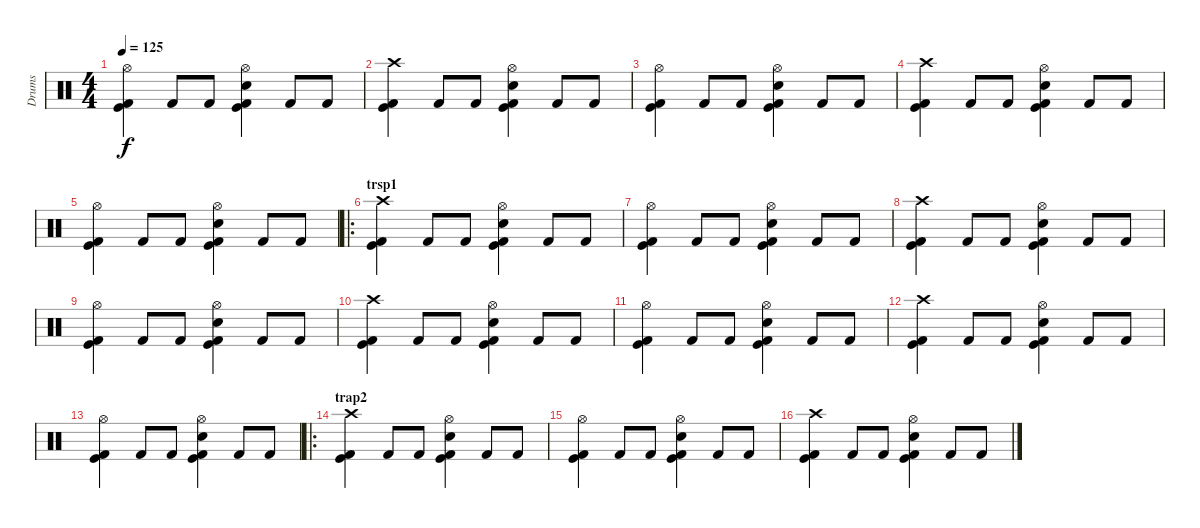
\track ("Drums" "Drums") {instrument percussion}
\staff {score}
\articulation defaults
\ts (4 4)
\tempo 125
\clef neutral
\ks c
("Hi-Hat (open)" "Kick (hit)" "Kick (hit) 2").4{dy f} "Kick (hit) 2".8 "Kick (hit) 2".8 ("Hi-Hat (open)" "Electric Snare (hit)" "Kick (hit)" "Kick (hit) 2").4 "Kick (hit) 2".8 "Kick (hit) 2".8 |
("Crash high (hit)" "Kick (hit)" "Kick (hit) 2").4 "Kick (hit) 2".8 "Kick (hit) 2".8 ("Hi-Hat (open)" "Electric Snare (hit)" "Kick (hit)" "Kick (hit) 2").4 "Kick (hit) 2".8 "Kick (hit) 2".8 |
("Hi-Hat (open)" "Kick (hit)" "Kick (hit) 2").4 "Kick (hit) 2".8 "Kick (hit) 2".8 ("Hi-Hat (open)" "Electric Snare (hit)" "Kick (hit)" "Kick (hit) 2").4 "Kick (hit) 2".8 "Kick (hit) 2".8 |
("Crash high (hit)" "Kick (hit)" "Kick (hit) 2").4 "Kick (hit) 2".8 "Kick (hit) 2".8 ("Hi-Hat (open)" "Electric Snare (hit)" "Kick (hit)" "Kick (hit) 2").4 "Kick (hit) 2".8 "Kick (hit) 2".8 |
("Hi-Hat (open)" "Kick (hit)" "Kick (hit) 2").4 "Kick (hit) 2".8 "Kick (hit) 2".8 ("Hi-Hat (open)" "Electric Snare (hit)" "Kick (hit)" "Kick (hit) 2").4 "Kick (hit) 2".8 "Kick (hit) 2".8 |
\ro
\section ("" "trsp1")
("Crash high (hit)" "Kick (hit)" "Kick (hit) 2").4 "Kick (hit) 2".8 "Kick (hit) 2".8 ("Hi-Hat (open)" "Electric Snare (hit)" "Kick (hit)" "Kick (hit) 2").4 "Kick (hit) 2".8 "Kick (hit) 2".8 |
("Hi-Hat (open)" "Kick (hit)" "Kick (hit) 2").4 "Kick (hit) 2".8 "Kick (hit) 2".8 ("Hi-Hat (open)" "Electric Snare (hit)" "Kick (hit)" "Kick (hit) 2").4 "Kick (hit) 2".8 "Kick (hit) 2".8 |
("Crash high (hit)" "Kick (hit)" "Kick (hit) 2").4 "Kick (hit) 2".8 "Kick (hit) 2".8 ("Hi-Hat (open)" "Electric Snare (hit)" "Kick (hit)" "Kick (hit) 2").4 "Kick (hit) 2".8 "Kick (hit) 2".8 |
("Hi-Hat (open)" "Kick (hit)" "Kick (hit) 2").4 "Kick (hit) 2".8 "Kick (hit) 2".8 ("Hi-Hat (open)" "Electric Snare (hit)" "Kick (hit)" "Kick (hit) 2").4 "Kick (hit) 2".8 "Kick (hit) 2".8 |
("Crash high (hit)" "Kick (hit)" "Kick (hit) 2").4 "Kick (hit) 2".8 "Kick (hit) 2".8 ("Hi-Hat (open)" "Electric Snare (hit)" "Kick (hit)" "Kick (hit) 2").4 "Kick (hit) 2".8 "Kick (hit) 2".8 |
("Hi-Hat (open)" "Kick (hit)" "Kick (hit) 2").4 "Kick (hit) 2".8 "Kick (hit) 2".8 ("Hi-Hat (open)" "Electric Snare (hit)" "Kick (hit)" "Kick (hit) 2").4 "Kick (hit) 2".8 "Kick (hit) 2".8 |
("Crash high (hit)" "Kick (hit)" "Kick (hit) 2").4 "Kick (hit) 2".8 "Kick (hit) 2".8 ("Hi-Hat (open)" "Electric Snare (hit)" "Kick (hit)" "Kick (hit) 2").4 "Kick (hit) 2".8 "Kick (hit) 2".8 |
("Hi-Hat (open)" "Kick (hit)" "Kick (hit) 2").4 "Kick (hit) 2".8 "Kick (hit) 2".8 ("Hi-Hat (open)" "Electric Snare (hit)" "Kick (hit)" "Kick (hit) 2").4 "Kick (hit) 2".8 "Kick (hit) 2".8 |
\ro
\section ("" "trap2")
("Crash high (hit)" "Kick (hit)" "Kick (hit) 2").4 "Kick (hit) 2".8 "Kick (hit) 2".8 ("Hi-Hat (open)" "Electric Snare (hit)" "Kick (hit)" "Kick (hit) 2").4 "Kick (hit) 2".8 "Kick (hit) 2".8 |
("Hi-Hat (open)" "Kick (hit)" "Kick (hit) 2").4 "Kick (hit) 2".8 "Kick (hit) 2".8 ("Hi-Hat (open)" "Electric Snare (hit)" "Kick (hit)" "Kick (hit) 2").4 "Kick (hit) 2".8 "Kick (hit) 2".8 |
("Crash high (hit)" "Kick (hit)" "Kick (hit) 2").4 "Kick (hit) 2".8 "Kick (hit) 2".8 ("Hi-Hat (open)" "Electric Snare (hit)" "Kick (hit)" "Kick (hit) 2").4 "Kick (hit) 2".8 "Kick (hit) 2".8
